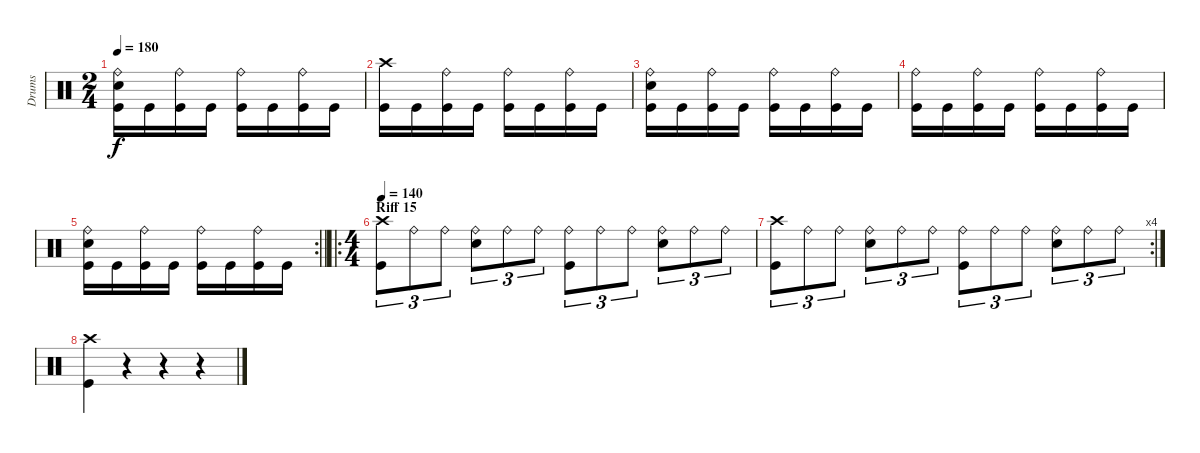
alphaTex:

\track ("Drums" "Drums") {instrument percussion}
\staff {score}
\articulation defaults
\ts (2 4)
\tempo 180
\clef neutral
\ks c
("Ride (bell)" "Electric Snare (hit)" "Kick (hit)").16{dy f} "Kick (hit)".16 ("Ride (bell)" "Kick (hit)").16 "Kick (hit)".16 ("Ride (bell)" "Kick (hit)").16 "Kick (hit)".16 ("Ride (bell)" "Kick (hit)").16 "Kick (hit)".16 |
("Crash high (hit)" "Kick (hit)").16 "Kick (hit)".16 ("Ride (bell)" "Kick (hit)").16 "Kick (hit)".16 ("Ride (bell)" "Kick (hit)").16 "Kick (hit)".16 ("Ride (bell)" "Kick (hit)").16 "Kick (hit)".16 |
("Ride (bell)" "Electric Snare (hit)" "Kick (hit)").16 "Kick (hit)".16 ("Ride (bell)" "Kick (hit)").16 "Kick (hit)".16 ("Ride (bell)" "Kick (hit)").16 "Kick (hit)".16 ("Ride (bell)" "Kick (hit)").16 "Kick (hit)".16 |
("Ride (bell)" "Kick (hit)").16 "Kick (hit)".16 ("Ride (bell)" "Kick (hit)").16 "Kick (hit)".16 ("Ride (bell)" "Kick (hit)").16 "Kick (hit)".16 ("Ride (bell)" "Kick (hit)").16 "Kick (hit)".16 |
\rc 2
\barLineRight lightlight
("Ride (bell)" "Electric Snare (hit)" "Kick (hit)").16 "Kick (hit)".16 ("Ride (bell)" "Kick (hit)").16 "Kick (hit)".16 ("Ride (bell)" "Kick (hit)").16 "Kick (hit)".16 ("Ride (bell)" "Kick (hit)").16 "Kick (hit)".16 |
\ro
\ts (4 4)
\section ("" "Riff 15")
\tempo 140
("Crash high (hit)" "Kick (hit)").8{tu (3 2)} "Ride (bell)".8{tu (3 2)} "Ride (bell)".8{tu (3 2)} ("Ride (bell)" "Electric Snare (hit)").8{tu (3 2)} "Ride (bell)".8{tu (3 2)} "Ride (bell)".8{tu (3 2)} ("Ride (bell)" "Kick (hit)").8{tu (3 2)} "Ride (bell)".8{tu (3 2)} "Ride (bell)".8{tu (3 2)} ("Ride (bell)" "Electric Snare (hit)").8{tu (3 2)} "Ride (bell)".8{tu (3 2)} "Ride (bell)".8{tu (3 2)} |
\rc 4
("Crash high (hit)" "Kick (hit)").8{tu (3 2)} "Ride (bell)".8{tu (3 2)} "Ride (bell)".8{tu (3 2)} ("Ride (bell)" "Electric Snare (hit)").8{tu (3 2)} "Ride (bell)".8{tu (3 2)} "Ride (bell)".8{tu (3 2)} ("Ride (bell)" "Kick (hit)").8{tu (3 2)} "Ride (bell)".8{tu (3 2)} "Ride (bell)".8{tu (3 2)} ("Ride (bell)" "Electric Snare (hit)").8{tu (3 2)} "Ride (bell)".8{tu (3 2)} "Ride (bell)".8{tu (3 2)} |
("Crash high (hit)" "Kick (hit)").4 r.4 r.4 r.4
